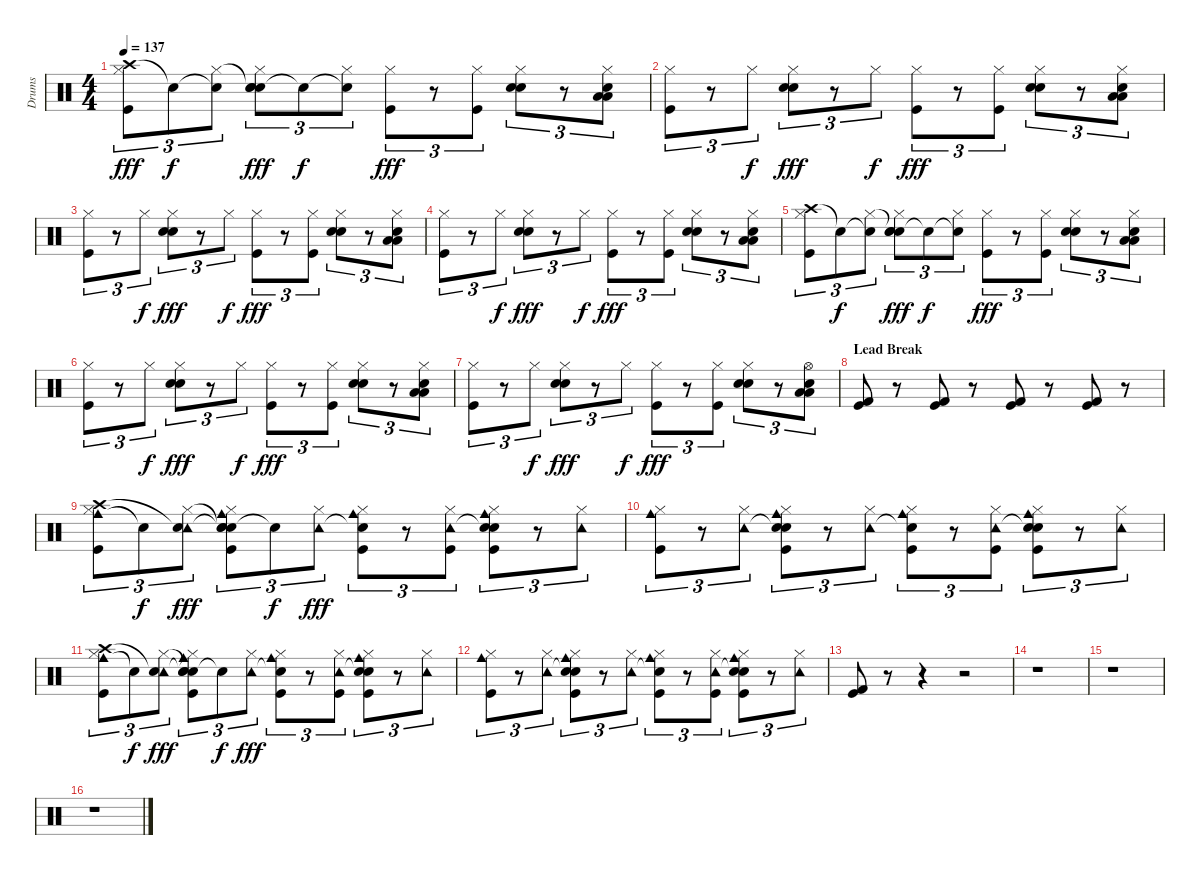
\track ("Drums" "Drums") {instrument percussion}
\staff {score}
\articulation defaults
\ts (4 4)
\tempo 137
\clef neutral
\ks c
("Crash high (hit)" "Hi-Hat (closed)" "Kick (hit)").8{tu (3 2) dy fff} "Snare (hit)"{t}.8{tu (3 2) dy f} ("Snare (hit)"{t} "Hi-Hat (closed)").8{tu (3 2)} ("Hand Clap (hit)" "Hand Clap (hit)"{t} "Hi-Hat (closed)" "Electric Snare (hit)").8{tu (3 2) dy fff} "Snare (hit)"{t}.8{tu (3 2) dy f} ("Snare (hit)"{t} "Hi-Hat (closed)").8{tu (3 2)} ("Hi-Hat (closed)" "Kick (hit)").8{tu (3 2) dy fff} r.8{tu (3 2)} ("Hi-Hat (closed)" "Kick (hit)").8{tu (3 2)} ("Hand Clap (hit)" "Hi-Hat (closed)" "Electric Snare (hit)").8{tu (3 2)} r.8{tu (3 2)} ("Low Tom (hit)" "Low Floor Tom (hit)" "Hi-Hat (closed)" "Electric Snare (hit)").8{tu (3 2)} |
("Hi-Hat (closed)" "Kick (hit)").8{tu (3 2)} r.8{tu (3 2)} "Hi-Hat (closed)".8{tu (3 2) dy f} ("Hand Clap (hit)" "Hi-Hat (closed)" "Electric Snare (hit)").8{tu (3 2) dy fff} r.8{tu (3 2)} "Hi-Hat (closed)".8{tu (3 2) dy f} ("Hi-Hat (closed)" "Kick (hit)").8{tu (3 2) dy fff} r.8{tu (3 2)} ("Hi-Hat (closed)" "Kick (hit)").8{tu (3 2)} ("Hand Clap (hit)" "Hi-Hat (closed)" "Electric Snare (hit)").8{tu (3 2)} r.8{tu (3 2)} ("Low Tom (hit)" "Low Floor Tom (hit)" "Hi-Hat (closed)" "Electric Snare (hit)").8{tu (3 2)} |
("Hi-Hat (closed)" "Kick (hit)").8{tu (3 2)} r.8{tu (3 2)} "Hi-Hat (closed)".8{tu (3 2) dy f} ("Hand Clap (hit)" "Hi-Hat (closed)" "Electric Snare (hit)").8{tu (3 2) dy fff} r.8{tu (3 2)} "Hi-Hat (closed)".8{tu (3 2) dy f} ("Hi-Hat (closed)" "Kick (hit)").8{tu (3 2) dy fff} r.8{tu (3 2)} ("Hi-Hat (closed)" "Kick (hit)").8{tu (3 2)} ("Hand Clap (hit)" "Hi-Hat (closed)" "Electric Snare (hit)").8{tu (3 2)} r.8{tu (3 2)} ("Low Tom (hit)" "Low Floor Tom (hit)" "Hi-Hat (closed)" "Electric Snare (hit)").8{tu (3 2)} |
("Hi-Hat (closed)" "Kick (hit)").8{tu (3 2)} r.8{tu (3 2)} "Hi-Hat (closed)".8{tu (3 2) dy f} ("Hand Clap (hit)" "Hi-Hat (closed)" "Electric Snare (hit)").8{tu (3 2) dy fff} r.8{tu (3 2)} "Hi-Hat (closed)".8{tu (3 2) dy f} ("Hi-Hat (closed)" "Kick (hit)").8{tu (3 2) dy fff} r.8{tu (3 2)} ("Hi-Hat (closed)" "Kick (hit)").8{tu (3 2)} ("Hand Clap (hit)" "Hi-Hat (closed)" "Electric Snare (hit)").8{tu (3 2)} r.8{tu (3 2)} ("Low Tom (hit)" "Low Floor Tom (hit)" "Hi-Hat (closed)" "Electric Snare (hit)").8{tu (3 2)} |
("Crash high (hit)" "Hi-Hat (closed)" "Kick (hit)").8{tu (3 2)} "Snare (hit)"{t}.8{tu (3 2) dy f} ("Snare (hit)"{t} "Hi-Hat (closed)").8{tu (3 2)} ("Hand Clap (hit)" "Hand Clap (hit)"{t} "Hi-Hat (closed)" "Electric Snare (hit)").8{tu (3 2) dy fff} "Snare (hit)"{t}.8{tu (3 2) dy f} ("Snare (hit)"{t} "Hi-Hat (closed)").8{tu (3 2)} ("Hi-Hat (closed)" "Kick (hit)").8{tu (3 2) dy fff} r.8{tu (3 2)} ("Hi-Hat (closed)" "Kick (hit)").8{tu (3 2)} ("Hand Clap (hit)" "Hi-Hat (closed)" "Electric Snare (hit)").8{tu (3 2)} r.8{tu (3 2)} ("Low Tom (hit)" "Low Floor Tom (hit)" "Hi-Hat (closed)" "Electric Snare (hit)").8{tu (3 2)} |
("Hi-Hat (closed)" "Kick (hit)").8{tu (3 2)} r.8{tu (3 2)} "Hi-Hat (closed)".8{tu (3 2) dy f} ("Hand Clap (hit)" "Hi-Hat (closed)" "Electric Snare (hit)").8{tu (3 2) dy fff} r.8{tu (3 2)} "Hi-Hat (closed)".8{tu (3 2) dy f} ("Hi-Hat (closed)" "Kick (hit)").8{tu (3 2) dy fff} r.8{tu (3 2)} ("Hi-Hat (closed)" "Kick (hit)").8{tu (3 2)} ("Hand Clap (hit)" "Hi-Hat (closed)" "Electric Snare (hit)").8{tu (3 2)} r.8{tu (3 2)} ("Low Tom (hit)" "Low Floor Tom (hit)" "Hi-Hat (closed)" "Electric Snare (hit)").8{tu (3 2)} |
("Hi-Hat (closed)" "Kick (hit)").8{tu (3 2)} r.8{tu (3 2)} "Hi-Hat (closed)".8{tu (3 2) dy f} ("Hand Clap (hit)" "Hi-Hat (closed)" "Electric Snare (hit)").8{tu (3 2) dy fff} r.8{tu (3 2)} "Hi-Hat (closed)".8{tu (3 2) dy f} ("Hi-Hat (closed)" "Kick (hit)").8{tu (3 2) dy fff} r.8{tu (3 2)} ("Hi-Hat (closed)" "Kick (hit)").8{tu (3 2)} ("Hand Clap (hit)" "Hi-Hat (closed)" "Electric Snare (hit)").8{tu (3 2)} r.8{tu (3 2)} ("Low Tom (hit)" "Low Floor Tom (hit)" "Hi-Hat (open)" "Electric Snare (hit)").8{tu (3 2)} |
\section ("" "Lead Break")
("Kick (hit) 2" "Kick (hit)").8 r.8 ("Kick (hit) 2" "Kick (hit)").8 r.8 ("Kick (hit) 2" "Kick (hit)").8 r.8 ("Kick (hit) 2" "Kick (hit)").8 r.8 |
("Cowbell medium (hit)" "Crash high (hit)" "Hi-Hat (closed)" "Kick (hit)").8{tu (3 2)} "Snare (hit)"{t}.8{tu (3 2) dy f} ("Tambourine (hit)" "Snare (hit)"{t} "Hi-Hat (closed)").8{tu (3 2) dy fff} ("Snare (hit)"{t} "Cowbell medium (hit)" "Snare (hit)"{t} "Hi-Hat (closed)" "Electric Snare (hit)" "Kick (hit)").8{tu (3 2)} "Snare (hit)"{t}.8{tu (3 2) dy f} ("Tambourine (hit)" "Hi-Hat (closed)").8{tu (3 2) dy fff} ("Snare (hit)"{t} "Cowbell medium (hit)" "Hi-Hat (closed)" "Kick (hit)").8{tu (3 2)} r.8{tu (3 2)} ("Tambourine (hit)" "Hi-Hat (closed)" "Kick (hit)").8{tu (3 2)} ("Snare (hit)"{t} "Cowbell medium (hit)" "Hi-Hat (closed)" "Electric Snare (hit)" "Kick (hit)").8{tu (3 2)} r.8{tu (3 2)} ("Tambourine (hit)" "Hi-Hat (closed)").8{tu (3 2)} |
("Cowbell medium (hit)" "Hi-Hat (closed)" "Kick (hit)").8{tu (3 2)} r.8{tu (3 2)} ("Tambourine (hit)" "Hi-Hat (closed)").8{tu (3 2)} ("Snare (hit)"{t} "Cowbell medium (hit)" "Hi-Hat (closed)" "Electric Snare (hit)" "Kick (hit)").8{tu (3 2)} r.8{tu (3 2)} ("Tambourine (hit)" "Hi-Hat (closed)").8{tu (3 2)} ("Snare (hit)"{t} "Cowbell medium (hit)" "Hi-Hat (closed)" "Kick (hit)").8{tu (3 2)} r.8{tu (3 2)} ("Tambourine (hit)" "Hi-Hat (closed)" "Kick (hit)").8{tu (3 2)} ("Snare (hit)"{t} "Cowbell medium (hit)" "Hi-Hat (closed)" "Electric Snare (hit)" "Kick (hit)").8{tu (3 2)} r.8{tu (3 2)} ("Tambourine (hit)" "Hi-Hat (closed)").8{tu (3 2)} |
("Cowbell medium (hit)" "Crash high (hit)" "Hi-Hat (closed)" "Kick (hit)").8{tu (3 2)} "Snare (hit)"{t}.8{tu (3 2) dy f} ("Tambourine (hit)" "Snare (hit)"{t} "Hi-Hat (closed)").8{tu (3 2) dy fff} ("Snare (hit)"{t} "Cowbell medium (hit)" "Snare (hit)"{t} "Hi-Hat (closed)" "Electric Snare (hit)" "Kick (hit)").8{tu (3 2)} "Snare (hit)"{t}.8{tu (3 2) dy f} ("Tambourine (hit)" "Hi-Hat (closed)").8{tu (3 2) dy fff} ("Snare (hit)"{t} "Cowbell medium (hit)" "Hi-Hat (closed)" "Kick (hit)").8{tu (3 2)} r.8{tu (3 2)} ("Tambourine (hit)" "Hi-Hat (closed)" "Kick (hit)").8{tu (3 2)} ("Snare (hit)"{t} "Cowbell medium (hit)" "Hi-Hat (closed)" "Electric Snare (hit)" "Kick (hit)").8{tu (3 2)} r.8{tu (3 2)} ("Tambourine (hit)" "Hi-Hat (closed)").8{tu (3 2)} |
("Cowbell medium (hit)" "Hi-Hat (closed)" "Kick (hit)").8{tu (3 2)} r.8{tu (3 2)} ("Tambourine (hit)" "Hi-Hat (closed)").8{tu (3 2)} ("Snare (hit)"{t} "Cowbell medium (hit)" "Hi-Hat (closed)" "Electric Snare (hit)" "Kick (hit)").8{tu (3 2)} r.8{tu (3 2)} ("Tambourine (hit)" "Hi-Hat (closed)").8{tu (3 2)} ("Snare (hit)"{t} "Cowbell medium (hit)" "Hi-Hat (closed)" "Kick (hit)").8{tu (3 2)} r.8{tu (3 2)} ("Tambourine (hit)" "Hi-Hat (closed)" "Kick (hit)").8{tu (3 2)} ("Snare (hit)"{t} "Cowbell medium (hit)" "Hi-Hat (closed)" "Electric Snare (hit)" "Kick (hit)").8{tu (3 2)} r.8{tu (3 2)} ("Tambourine (hit)" "Hi-Hat (closed)").8{tu (3 2)} |
("Kick (hit) 2" "Kick (hit)").8 r.8 r.4 r.2 |
r.1 |
r.1 |
r.1
